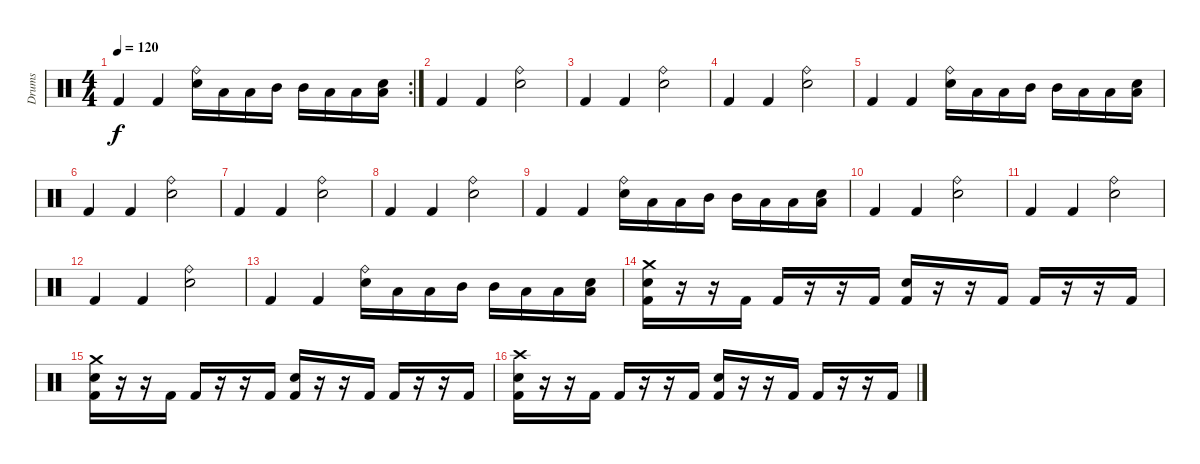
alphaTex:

\track ("Drums" "Drums") {instrument percussion}
\staff {score}
\articulation defaults
\rc 2
\ts (4 4)
\tempo 120
\clef neutral
\ks c "Kick (hit) 2".4{dy f} "Kick (hit) 2".4
("Ride (bell)" "Electric Snare (hit)").16 "Low Tom (hit)".16 "Low Tom (hit)".16 "Mid Tom (hit)".16 "Mid Tom (hit)".16 "Low Floor Tom (hit)".16 "Low Floor Tom (hit)".16 ("Low Tom (hit)" "Electric Snare (hit)").16 |
"Kick (hit) 2".4 "Kick (hit) 2".4 ("Ride (bell)" "Electric Snare (hit)").2 |
"Kick (hit) 2".4 "Kick (hit) 2".4 ("Ride (bell)" "Electric Snare (hit)").2 |
"Kick (hit) 2".4 "Kick (hit) 2".4 ("Ride (bell)" "Electric Snare (hit)").2 |
"Kick (hit) 2".4 "Kick (hit) 2".4 ("Ride (bell)" "Electric Snare (hit)").16 "Low Tom (hit)".16 "Low Tom (hit)".16 "Mid Tom (hit)".16 "Mid Tom (hit)".16 "Low Floor Tom (hit)".16 "Low Floor Tom (hit)".16 ("Low Tom (hit)" "Electric Snare (hit)").16 |
"Kick (hit) 2".4 "Kick (hit) 2".4 ("Ride (bell)" "Electric Snare (hit)").2 |
"Kick (hit) 2".4 "Kick (hit) 2".4 ("Ride (bell)" "Electric Snare (hit)").2 |
"Kick (hit) 2".4 "Kick (hit) 2".4 ("Ride (bell)" "Electric Snare (hit)").2 |
"Kick (hit) 2".4 "Kick (hit) 2".4 ("Ride (bell)" "Electric Snare (hit)").16 "Low Tom (hit)".16 "Low Tom (hit)".16 "Mid Tom (hit)".16 "Mid Tom (hit)".16 "Low Floor Tom (hit)".16 "Low Floor Tom (hit)".16 ("Low Tom (hit)" "Electric Snare (hit)").16 |
"Kick (hit) 2".4 "Kick (hit) 2".4 ("Ride (bell)" "Electric Snare (hit)").2 |
"Kick (hit) 2".4 "Kick (hit) 2".4 ("Ride (bell)" "Electric Snare (hit)").2 |
"Kick (hit) 2".4 "Kick (hit) 2".4 ("Ride (bell)" "Electric Snare (hit)").2 |
"Kick (hit) 2".4 "Kick (hit) 2".4 ("Ride (bell)" "Electric Snare (hit)").16 "Low Tom (hit)".16 "Low Tom (hit)".16 "Mid Tom (hit)".16 "Mid Tom (hit)".16 "Low Floor Tom (hit)".16 "Low Floor Tom (hit)".16 ("Low Tom (hit)" "Electric Snare (hit)").16 |
("Crash medium (hit)" "Electric Snare (hit)" "Kick (hit) 2").16 r.16 r.16 "Kick (hit) 2".16 "Kick (hit) 2".16 r.16 r.16 "Kick (hit) 2".16 ("Electric Snare (hit)" "Kick (hit) 2").16 r.16 r.16 "Kick (hit) 2".16 "Kick (hit) 2".16 r.16 r.16 "Kick (hit) 2".16 |
("Crash medium (hit)" "Electric Snare (hit)" "Kick (hit) 2").16 r.16 r.16 "Kick (hit) 2".16 "Kick (hit) 2".16 r.16 r.16 "Kick (hit) 2".16 ("Electric Snare (hit)" "Kick (hit) 2").16 r.16 r.16 "Kick (hit) 2".16 "Kick (hit) 2".16 r.16 r.16 "Kick (hit) 2".16 |
("Crash high (hit)" "Electric Snare (hit)" "Kick (hit) 2").16 r.16 r.16 "Kick (hit) 2".16 "Kick (hit) 2".16 r.16 r.16 "Kick (hit) 2".16 ("Electric Snare (hit)" "Kick (hit) 2").16 r.16 r.16 "Kick (hit) 2".16 "Kick (hit) 2".16 r.16 r.16 "Kick (hit) 2".16
